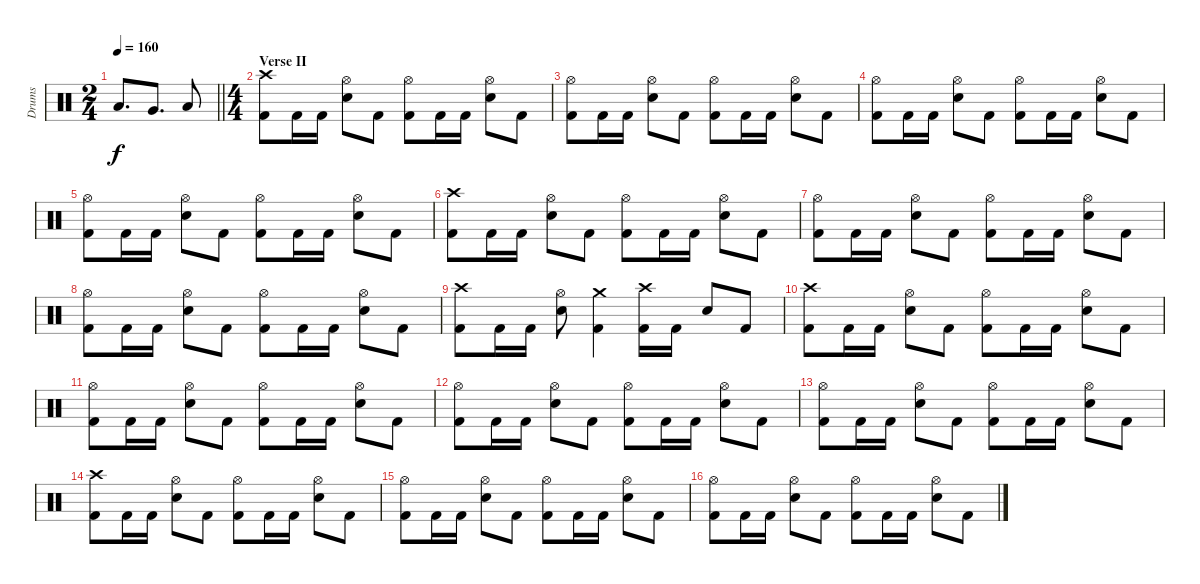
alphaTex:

\track ("Drums" "Drums") {instrument percussion}
\staff {score}
\articulation defaults
\ts (2 4)
\tempo 160
\clef neutral
\barLineRight lightlight
\ks c "Low Tom (hit)".8{d dy f} "Very Low Tom (hit)".8{d} "Low Floor Tom (hit)".8
|
\ts (4 4)
\section ("" "Verse II")
("Crash high (hit)" "Kick (hit) 2").8 "Kick (hit) 2".16 "Kick (hit) 2".16 ("Hi-Hat (open)" "Snare (hit) 2").8 "Kick (hit) 2".8 ("Hi-Hat (open)" "Kick (hit) 2").8 "Kick (hit) 2".16 "Kick (hit) 2".16 ("Hi-Hat (open)" "Snare (hit) 2").8 "Kick (hit) 2".8 |
("Hi-Hat (open)" "Kick (hit) 2").8 "Kick (hit) 2".16 "Kick (hit) 2".16 ("Hi-Hat (open)" "Snare (hit) 2").8 "Kick (hit) 2".8 ("Hi-Hat (open)" "Kick (hit) 2").8 "Kick (hit) 2".16 "Kick (hit) 2".16 ("Hi-Hat (open)" "Snare (hit) 2").8 "Kick (hit) 2".8 |
("Hi-Hat (open)" "Kick (hit) 2").8 "Kick (hit) 2".16 "Kick (hit) 2".16 ("Hi-Hat (open)" "Snare (hit) 2").8 "Kick (hit) 2".8 ("Hi-Hat (open)" "Kick (hit) 2").8 "Kick (hit) 2".16 "Kick (hit) 2".16 ("Hi-Hat (open)" "Snare (hit) 2").8 "Kick (hit) 2".8 |
("Hi-Hat (open)" "Kick (hit) 2").8 "Kick (hit) 2".16 "Kick (hit) 2".16 ("Hi-Hat (open)" "Snare (hit) 2").8 "Kick (hit) 2".8 ("Hi-Hat (open)" "Kick (hit) 2").8 "Kick (hit) 2".16 "Kick (hit) 2".16 ("Hi-Hat (open)" "Snare (hit) 2").8 "Kick (hit) 2".8 |
("Crash high (hit)" "Kick (hit) 2").8 "Kick (hit) 2".16 "Kick (hit) 2".16 ("Hi-Hat (open)" "Snare (hit) 2").8 "Kick (hit) 2".8 ("Hi-Hat (open)" "Kick (hit) 2").8 "Kick (hit) 2".16 "Kick (hit) 2".16 ("Hi-Hat (open)" "Snare (hit) 2").8 "Kick (hit) 2".8 |
("Hi-Hat (open)" "Kick (hit) 2").8 "Kick (hit) 2".16 "Kick (hit) 2".16 ("Hi-Hat (open)" "Snare (hit) 2").8 "Kick (hit) 2".8 ("Hi-Hat (open)" "Kick (hit) 2").8 "Kick (hit) 2".16 "Kick (hit) 2".16 ("Hi-Hat (open)" "Snare (hit) 2").8 "Kick (hit) 2".8 |
("Hi-Hat (open)" "Kick (hit) 2").8 "Kick (hit) 2".16 "Kick (hit) 2".16 ("Hi-Hat (open)" "Snare (hit) 2").8 "Kick (hit) 2".8 ("Hi-Hat (open)" "Kick (hit) 2").8 "Kick (hit) 2".16 "Kick (hit) 2".16 ("Hi-Hat (open)" "Snare (hit) 2").8 "Kick (hit) 2".8 |
("Crash high (hit)" "Kick (hit) 2").8 "Kick (hit) 2".16 "Kick (hit) 2".16 ("Hi-Hat (open)" "Snare (hit) 2").8 ("Crash medium (hit)" "Kick (hit) 2").4 ("Crash high (hit)" "Kick (hit) 2").16 "Kick (hit) 2".16 "Snare (hit) 2".8 "Kick (hit) 2".8 |
("Crash high (hit)" "Kick (hit) 2").8 "Kick (hit) 2".16 "Kick (hit) 2".16 ("Hi-Hat (open)" "Snare (hit) 2").8 "Kick (hit) 2".8 ("Hi-Hat (open)" "Kick (hit) 2").8 "Kick (hit) 2".16 "Kick (hit) 2".16 ("Hi-Hat (open)" "Snare (hit) 2").8 "Kick (hit) 2".8 |
("Hi-Hat (open)" "Kick (hit) 2").8 "Kick (hit) 2".16 "Kick (hit) 2".16 ("Hi-Hat (open)" "Snare (hit) 2").8 "Kick (hit) 2".8 ("Hi-Hat (open)" "Kick (hit) 2").8 "Kick (hit) 2".16 "Kick (hit) 2".16 ("Hi-Hat (open)" "Snare (hit) 2").8 "Kick (hit) 2".8 |
("Hi-Hat (open)" "Kick (hit) 2").8 "Kick (hit) 2".16 "Kick (hit) 2".16 ("Hi-Hat (open)" "Snare (hit) 2").8 "Kick (hit) 2".8 ("Hi-Hat (open)" "Kick (hit) 2").8 "Kick (hit) 2".16 "Kick (hit) 2".16 ("Hi-Hat (open)" "Snare (hit) 2").8 "Kick (hit) 2".8 |
("Hi-Hat (open)" "Kick (hit) 2").8 "Kick (hit) 2".16 "Kick (hit) 2".16 ("Hi-Hat (open)" "Snare (hit) 2").8 "Kick (hit) 2".8 ("Hi-Hat (open)" "Kick (hit) 2").8 "Kick (hit) 2".16 "Kick (hit) 2".16 ("Hi-Hat (open)" "Snare (hit) 2").8 "Kick (hit) 2".8 |
("Crash high (hit)" "Kick (hit) 2").8 "Kick (hit) 2".16 "Kick (hit) 2".16 ("Hi-Hat (open)" "Snare (hit) 2").8 "Kick (hit) 2".8 ("Hi-Hat (open)" "Kick (hit) 2").8 "Kick (hit) 2".16 "Kick (hit) 2".16 ("Hi-Hat (open)" "Snare (hit) 2").8 "Kick (hit) 2".8 |
("Hi-Hat (open)" "Kick (hit) 2").8 "Kick (hit) 2".16 "Kick (hit) 2".16 ("Hi-Hat (open)" "Snare (hit) 2").8 "Kick (hit) 2".8 ("Hi-Hat (open)" "Kick (hit) 2").8 "Kick (hit) 2".16 "Kick (hit) 2".16 ("Hi-Hat (open)" "Snare (hit) 2").8 "Kick (hit) 2".8 |
("Hi-Hat (open)" "Kick (hit) 2").8 "Kick (hit) 2".16 "Kick (hit) 2".16 ("Hi-Hat (open)" "Snare (hit) 2").8 "Kick (hit) 2".8 ("Hi-Hat (open)" "Kick (hit) 2").8 "Kick (hit) 2".16 "Kick (hit) 2".16 ("Hi-Hat (open)" "Snare (hit) 2").8 "Kick (hit) 2".8
